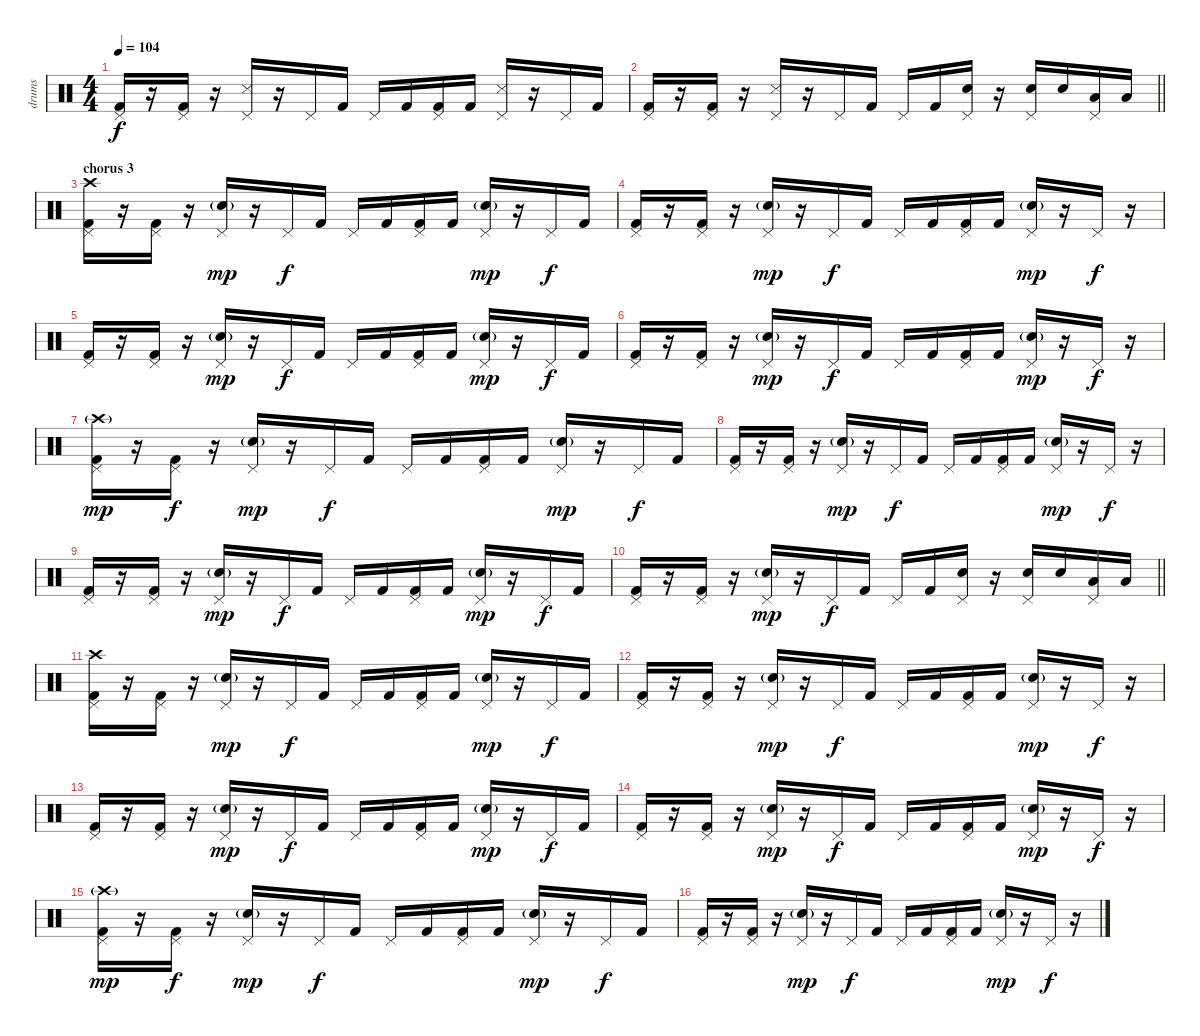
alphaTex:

\track ("drums" "drums") {instrument percussion}
\staff {score}
\articulation defaults
\ts (4 4)
\tempo 104
\clef neutral
\ks c
("Kick (hit) 2" "Pedal Hi-Hat (hit)").16{dy f} r.16 ("Kick (hit) 2" "Pedal Hi-Hat (hit)").16 r.16 ("Snare (side stick) 3" "Pedal Hi-Hat (hit)").16 r.16 "Pedal Hi-Hat (hit)".16 "Kick (hit) 2".16 "Pedal Hi-Hat (hit)".16 "Kick (hit) 2".16 ("Kick (hit) 2" "Pedal Hi-Hat (hit)").16 "Kick (hit) 2".16 ("Snare (side stick) 3" "Pedal Hi-Hat (hit)").16 r.16 "Pedal Hi-Hat (hit)".16 "Kick (hit) 2".16 |
\barLineRight lightlight
("Kick (hit) 2" "Pedal Hi-Hat (hit)").16 r.16 ("Kick (hit) 2" "Pedal Hi-Hat (hit)").16 r.16 ("Snare (side stick) 3" "Pedal Hi-Hat (hit)").16 r.16 "Pedal Hi-Hat (hit)".16 "Kick (hit) 2".16 "Pedal Hi-Hat (hit)".16 "Kick (hit) 2".16 ("Snare (hit) 2" "Pedal Hi-Hat (hit)").16 r.16 ("Snare (hit) 2" "Pedal Hi-Hat (hit)").16 "Snare (hit) 2".16 ("Low Tom (hit)" "Pedal Hi-Hat (hit)").16 "Low Tom (hit)".16 |
\section ("" "chorus 3")
("Kick (hit) 2" "Pedal Hi-Hat (hit)" "Crash high (hit)").16 r.16 ("Kick (hit) 2" "Pedal Hi-Hat (hit)").16 r.16 ("Snare (hit) 2"{g} "Pedal Hi-Hat (hit)").16{dy mp} r.16 "Pedal Hi-Hat (hit)".16{dy f} "Kick (hit) 2".16 "Pedal Hi-Hat (hit)".16 "Kick (hit) 2".16 ("Kick (hit) 2" "Pedal Hi-Hat (hit)").16 "Kick (hit) 2".16 ("Snare (hit) 2"{g} "Pedal Hi-Hat (hit)").16{dy mp} r.16 "Pedal Hi-Hat (hit)".16{dy f} "Kick (hit) 2".16 |
("Kick (hit) 2" "Pedal Hi-Hat (hit)").16 r.16 ("Kick (hit) 2" "Pedal Hi-Hat (hit)").16 r.16 ("Snare (hit) 2"{g} "Pedal Hi-Hat (hit)").16{dy mp} r.16 "Pedal Hi-Hat (hit)".16{dy f} "Kick (hit) 2".16 "Pedal Hi-Hat (hit)".16 "Kick (hit) 2".16 ("Kick (hit) 2" "Pedal Hi-Hat (hit)").16 "Kick (hit) 2".16 ("Snare (hit) 2"{g} "Pedal Hi-Hat (hit)").16{dy mp} r.16 "Pedal Hi-Hat (hit)".16{dy f} r.16 |
("Kick (hit) 2" "Pedal Hi-Hat (hit)").16 r.16 ("Kick (hit) 2" "Pedal Hi-Hat (hit)").16 r.16 ("Snare (hit) 2"{g} "Pedal Hi-Hat (hit)").16{dy mp} r.16 "Pedal Hi-Hat (hit)".16{dy f} "Kick (hit) 2".16 "Pedal Hi-Hat (hit)".16 "Kick (hit) 2".16 ("Kick (hit) 2" "Pedal Hi-Hat (hit)").16 "Kick (hit) 2".16 ("Snare (hit) 2"{g} "Pedal Hi-Hat (hit)").16{dy mp} r.16 "Pedal Hi-Hat (hit)".16{dy f} "Kick (hit) 2".16 |
("Kick (hit) 2" "Pedal Hi-Hat (hit)").16 r.16 ("Kick (hit) 2" "Pedal Hi-Hat (hit)").16 r.16 ("Snare (hit) 2"{g} "Pedal Hi-Hat (hit)").16{dy mp} r.16 "Pedal Hi-Hat (hit)".16{dy f} "Kick (hit) 2".16 "Pedal Hi-Hat (hit)".16 "Kick (hit) 2".16 ("Kick (hit) 2" "Pedal Hi-Hat (hit)").16 "Kick (hit) 2".16 ("Snare (hit) 2"{g} "Pedal Hi-Hat (hit)").16{dy mp} r.16 "Pedal Hi-Hat (hit)".16{dy f} r.16 |
("Kick (hit) 2" "Pedal Hi-Hat (hit)" "Crash high (hit)"{g}).16{dy mp} r.16 ("Kick (hit) 2" "Pedal Hi-Hat (hit)").16{dy f} r.16 ("Snare (hit) 2"{g} "Pedal Hi-Hat (hit)").16{dy mp} r.16 "Pedal Hi-Hat (hit)".16{dy f} "Kick (hit) 2".16 "Pedal Hi-Hat (hit)".16 "Kick (hit) 2".16 ("Kick (hit) 2" "Pedal Hi-Hat (hit)").16 "Kick (hit) 2".16 ("Snare (hit) 2"{g} "Pedal Hi-Hat (hit)").16{dy mp} r.16 "Pedal Hi-Hat (hit)".16{dy f} "Kick (hit) 2".16 |
("Kick (hit) 2" "Pedal Hi-Hat (hit)").16 r.16 ("Kick (hit) 2" "Pedal Hi-Hat (hit)").16 r.16 ("Snare (hit) 2"{g} "Pedal Hi-Hat (hit)").16{dy mp} r.16 "Pedal Hi-Hat (hit)".16{dy f} "Kick (hit) 2".16 "Pedal Hi-Hat (hit)".16 "Kick (hit) 2".16 ("Kick (hit) 2" "Pedal Hi-Hat (hit)").16 "Kick (hit) 2".16 ("Snare (hit) 2"{g} "Pedal Hi-Hat (hit)").16{dy mp} r.16 "Pedal Hi-Hat (hit)".16{dy f} r.16 |
("Kick (hit) 2" "Pedal Hi-Hat (hit)").16 r.16 ("Kick (hit) 2" "Pedal Hi-Hat (hit)").16 r.16 ("Snare (hit) 2"{g} "Pedal Hi-Hat (hit)").16{dy mp} r.16 "Pedal Hi-Hat (hit)".16{dy f} "Kick (hit) 2".16 "Pedal Hi-Hat (hit)".16 "Kick (hit) 2".16 ("Kick (hit) 2" "Pedal Hi-Hat (hit)").16 "Kick (hit) 2".16 ("Snare (hit) 2"{g} "Pedal Hi-Hat (hit)").16{dy mp} r.16 "Pedal Hi-Hat (hit)".16{dy f} "Kick (hit) 2".16 |
\barLineRight lightlight
("Kick (hit) 2" "Pedal Hi-Hat (hit)").16 r.16 ("Kick (hit) 2" "Pedal Hi-Hat (hit)").16 r.16 ("Snare (hit) 2"{g} "Pedal Hi-Hat (hit)").16{dy mp} r.16 "Pedal Hi-Hat (hit)".16{dy f} "Kick (hit) 2".16 "Pedal Hi-Hat (hit)".16 "Kick (hit) 2".16 ("Snare (hit) 2" "Pedal Hi-Hat (hit)").16 r.16 ("Snare (hit) 2" "Pedal Hi-Hat (hit)").16 "Snare (hit) 2".16 ("Low Tom (hit)" "Pedal Hi-Hat (hit)").16 "Low Tom (hit)".16 |
("Kick (hit) 2" "Pedal Hi-Hat (hit)" "Crash high (hit)").16 r.16 ("Kick (hit) 2" "Pedal Hi-Hat (hit)").16 r.16 ("Snare (hit) 2"{g} "Pedal Hi-Hat (hit)").16{dy mp} r.16 "Pedal Hi-Hat (hit)".16{dy f} "Kick (hit) 2".16 "Pedal Hi-Hat (hit)".16 "Kick (hit) 2".16 ("Kick (hit) 2" "Pedal Hi-Hat (hit)").16 "Kick (hit) 2".16 ("Snare (hit) 2"{g} "Pedal Hi-Hat (hit)").16{dy mp} r.16 "Pedal Hi-Hat (hit)".16{dy f} "Kick (hit) 2".16 |
("Kick (hit) 2" "Pedal Hi-Hat (hit)").16 r.16 ("Kick (hit) 2" "Pedal Hi-Hat (hit)").16 r.16 ("Snare (hit) 2"{g} "Pedal Hi-Hat (hit)").16{dy mp} r.16 "Pedal Hi-Hat (hit)".16{dy f} "Kick (hit) 2".16 "Pedal Hi-Hat (hit)".16 "Kick (hit) 2".16 ("Kick (hit) 2" "Pedal Hi-Hat (hit)").16 "Kick (hit) 2".16 ("Snare (hit) 2"{g} "Pedal Hi-Hat (hit)").16{dy mp} r.16 "Pedal Hi-Hat (hit)".16{dy f} r.16 |
("Kick (hit) 2" "Pedal Hi-Hat (hit)").16 r.16 ("Kick (hit) 2" "Pedal Hi-Hat (hit)").16 r.16 ("Snare (hit) 2"{g} "Pedal Hi-Hat (hit)").16{dy mp} r.16 "Pedal Hi-Hat (hit)".16{dy f} "Kick (hit) 2".16 "Pedal Hi-Hat (hit)".16 "Kick (hit) 2".16 ("Kick (hit) 2" "Pedal Hi-Hat (hit)").16 "Kick (hit) 2".16 ("Snare (hit) 2"{g} "Pedal Hi-Hat (hit)").16{dy mp} r.16 "Pedal Hi-Hat (hit)".16{dy f} "Kick (hit) 2".16 |
("Kick (hit) 2" "Pedal Hi-Hat (hit)").16 r.16 ("Kick (hit) 2" "Pedal Hi-Hat (hit)").16 r.16 ("Snare (hit) 2"{g} "Pedal Hi-Hat (hit)").16{dy mp} r.16 "Pedal Hi-Hat (hit)".16{dy f} "Kick (hit) 2".16 "Pedal Hi-Hat (hit)".16 "Kick (hit) 2".16 ("Kick (hit) 2" "Pedal Hi-Hat (hit)").16 "Kick (hit) 2".16 ("Snare (hit) 2"{g} "Pedal Hi-Hat (hit)").16{dy mp} r.16 "Pedal Hi-Hat (hit)".16{dy f} r.16 |
("Kick (hit) 2" "Pedal Hi-Hat (hit)" "Crash high (hit)"{g}).16{dy mp} r.16 ("Kick (hit) 2" "Pedal Hi-Hat (hit)").16{dy f} r.16 ("Snare (hit) 2"{g} "Pedal Hi-Hat (hit)").16{dy mp} r.16 "Pedal Hi-Hat (hit)".16{dy f} "Kick (hit) 2".16 "Pedal Hi-Hat (hit)".16 "Kick (hit) 2".16 ("Kick (hit) 2" "Pedal Hi-Hat (hit)").16 "Kick (hit) 2".16 ("Snare (hit) 2"{g} "Pedal Hi-Hat (hit)").16{dy mp} r.16 "Pedal Hi-Hat (hit)".16{dy f} "Kick (hit) 2".16 |
("Kick (hit) 2" "Pedal Hi-Hat (hit)").16 r.16 ("Kick (hit) 2" "Pedal Hi-Hat (hit)").16 r.16 ("Snare (hit) 2"{g} "Pedal Hi-Hat (hit)").16{dy mp} r.16 "Pedal Hi-Hat (hit)".16{dy f} "Kick (hit) 2".16 "Pedal Hi-Hat (hit)".16 "Kick (hit) 2".16 ("Kick (hit) 2" "Pedal Hi-Hat (hit)").16 "Kick (hit) 2".16 ("Snare (hit) 2"{g} "Pedal Hi-Hat (hit)").16{dy mp} r.16 "Pedal Hi-Hat (hit)".16{dy f} r.16
